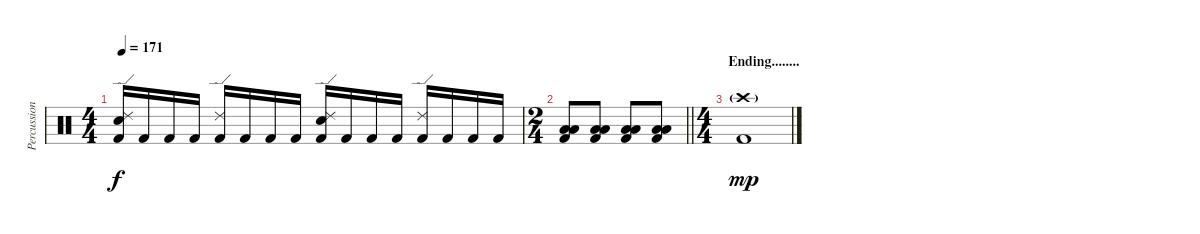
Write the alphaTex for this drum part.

\track ("Percussion" "Percussion") {instrument percussion}
\staff {score}
\articulation defaults
\ts (4 4)
\tempo 171
\clef neutral
\ks c
("Ride (edge) 2" "Snare (hit) 2" "Kick (hit) 2").16{dy f} "Kick (hit) 2".16 "Kick (hit) 2".16 "Kick (hit) 2".16 ("Ride (edge) 2" "Kick (hit) 2").16 "Kick (hit) 2".16 "Kick (hit) 2".16 "Kick (hit) 2".16 ("Ride (edge) 2" "Snare (hit) 2" "Kick (hit) 2").16 "Kick (hit) 2".16 "Kick (hit) 2".16 "Kick (hit) 2".16 ("Ride (edge) 2" "Kick (hit) 2").16 "Kick (hit) 2".16 "Kick (hit) 2".16 "Kick (hit) 2".16 |
\ts (2 4)
\barLineRight lightlight
("Low Floor Tom (hit)" "Low Floor Tom (hit)" "Kick (hit) 2").8 ("Low Floor Tom (hit)" "Low Floor Tom (hit)" "Kick (hit) 2").8 ("Low Floor Tom (hit)" "Low Floor Tom (hit)" "Kick (hit) 2").8 ("Low Floor Tom (hit)" "Low Floor Tom (hit)" "Kick (hit) 2").8 |
\ts (4 4)
\section ("" "Ending........")
("Crash high (hit)"{g} "Kick (hit) 2").1{dy mp}
